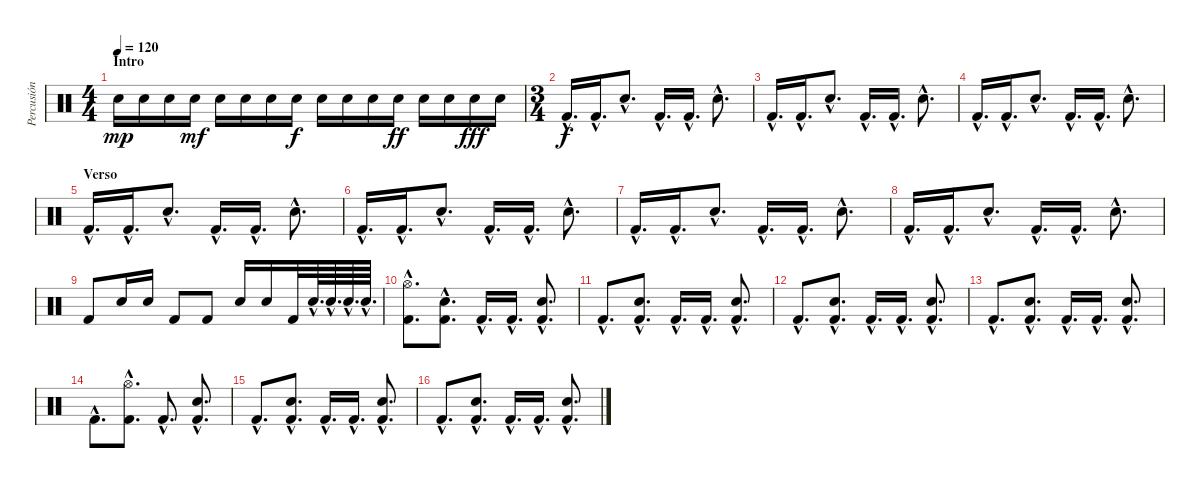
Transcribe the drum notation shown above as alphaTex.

\track ("Percusión" "Percusión") {instrument percussion}
\staff {score}
\articulation defaults
\ts (4 4)
\section ("" "Intro")
\tempo 120
\clef neutral
\ks c "Electric Snare (hit)".16{dy mp} "Electric Snare (hit)".16 "Electric Snare (hit)".16 "Electric Snare (hit)".16{dy mf} "Electric Snare (hit)".16 "Electric Snare (hit)".16 "Electric Snare (hit)".16 "Electric Snare (hit)".16{dy f} "Electric Snare (hit)".16 "Electric Snare (hit)".16 "Electric Snare (hit)".16 "Electric Snare (hit)".16{dy ff} "Electric Snare (hit)".16 "Electric Snare (hit)".16 "Electric Snare (hit)".16{dy fff} "Electric Snare (hit)".16
|
\ts (3 4)
"Kick (hit) 2"{hac}.16{d dy f} "Kick (hit) 2"{hac}.16{d} "Electric Snare (hit)"{hac}.8{d} "Kick (hit) 2"{hac}.16{d} "Kick (hit) 2"{hac}.16{d} "Electric Snare (hit)"{hac}.8{d} |
"Kick (hit) 2"{hac}.16{d} "Kick (hit) 2"{hac}.16{d} "Electric Snare (hit)"{hac}.8{d} "Kick (hit) 2"{hac}.16{d} "Kick (hit) 2"{hac}.16{d} "Electric Snare (hit)"{hac}.8{d} |
"Kick (hit) 2"{hac}.16{d} "Kick (hit) 2"{hac}.16{d} "Electric Snare (hit)"{hac}.8{d} "Kick (hit) 2"{hac}.16{d} "Kick (hit) 2"{hac}.16{d} "Electric Snare (hit)"{hac}.8{d} |
\section ("" "Verso")
"Kick (hit) 2"{hac}.16{d} "Kick (hit) 2"{hac}.16{d} "Electric Snare (hit)"{hac}.8{d} "Kick (hit) 2"{hac}.16{d} "Kick (hit) 2"{hac}.16{d} "Electric Snare (hit)"{hac}.8{d} |
"Kick (hit) 2"{hac}.16{d} "Kick (hit) 2"{hac}.16{d} "Electric Snare (hit)"{hac}.8{d} "Kick (hit) 2"{hac}.16{d} "Kick (hit) 2"{hac}.16{d} "Electric Snare (hit)"{hac}.8{d} |
"Kick (hit) 2"{hac}.16{d} "Kick (hit) 2"{hac}.16{d} "Electric Snare (hit)"{hac}.8{d} "Kick (hit) 2"{hac}.16{d} "Kick (hit) 2"{hac}.16{d} "Electric Snare (hit)"{hac}.8{d} |
"Kick (hit) 2"{hac}.16{d} "Kick (hit) 2"{hac}.16{d} "Electric Snare (hit)"{hac}.8{d} "Kick (hit) 2"{hac}.16{d} "Kick (hit) 2"{hac}.16{d} "Electric Snare (hit)"{hac}.8{d} |
"Kick (hit) 2".8 "Electric Snare (hit)".16 "Electric Snare (hit)".16 "Kick (hit) 2".8 "Kick (hit) 2".8 "Electric Snare (hit)".16 "Electric Snare (hit)".16 "Kick (hit) 2".32 "Electric Snare (hit)"{hac}.64{d} "Electric Snare (hit)"{hac}.64{d} "Electric Snare (hit)"{hac}.64{d} "Electric Snare (hit)"{hac}.64{d} |
("Hi-Hat (open)"{hac} "Kick (hit) 2"{hac}).8{d} ("Electric Snare (hit)"{hac} "Kick (hit) 2"{hac}).8{d} "Kick (hit) 2"{hac}.16{d} "Kick (hit) 2"{hac}.16{d} ("Electric Snare (hit)"{hac} "Kick (hit) 2"{hac}).8{d} |
"Kick (hit) 2"{hac}.8{d} ("Electric Snare (hit)"{hac} "Kick (hit) 2"{hac}).8{d} "Kick (hit) 2"{hac}.16{d} "Kick (hit) 2"{hac}.16{d} ("Electric Snare (hit)"{hac} "Kick (hit) 2"{hac}).8{d} |
"Kick (hit) 2"{hac}.8{d} ("Electric Snare (hit)"{hac} "Kick (hit) 2"{hac}).8{d} "Kick (hit) 2"{hac}.16{d} "Kick (hit) 2"{hac}.16{d} ("Electric Snare (hit)"{hac} "Kick (hit) 2"{hac}).8{d} |
"Kick (hit) 2"{hac}.8{d} ("Electric Snare (hit)"{hac} "Kick (hit) 2"{hac}).8{d} "Kick (hit) 2"{hac}.16{d} "Kick (hit) 2"{hac}.16{d} ("Electric Snare (hit)"{hac} "Kick (hit) 2"{hac}).8{d} |
"Kick (hit) 2"{hac}.8{d} ("Hi-Hat (open)"{hac} "Kick (hit) 2"{hac}).8{d} "Kick (hit) 2"{hac}.8{d} ("Electric Snare (hit)"{hac} "Kick (hit) 2"{hac}).8{d} |
"Kick (hit) 2"{hac}.8{d} ("Electric Snare (hit)"{hac} "Kick (hit) 2"{hac}).8{d} "Kick (hit) 2"{hac}.16{d} "Kick (hit) 2"{hac}.16{d} ("Electric Snare (hit)"{hac} "Kick (hit) 2"{hac}).8{d} |
"Kick (hit) 2"{hac}.8{d} ("Electric Snare (hit)"{hac} "Kick (hit) 2"{hac}).8{d} "Kick (hit) 2"{hac}.16{d} "Kick (hit) 2"{hac}.16{d} ("Electric Snare (hit)"{hac} "Kick (hit) 2"{hac}).8{d}
